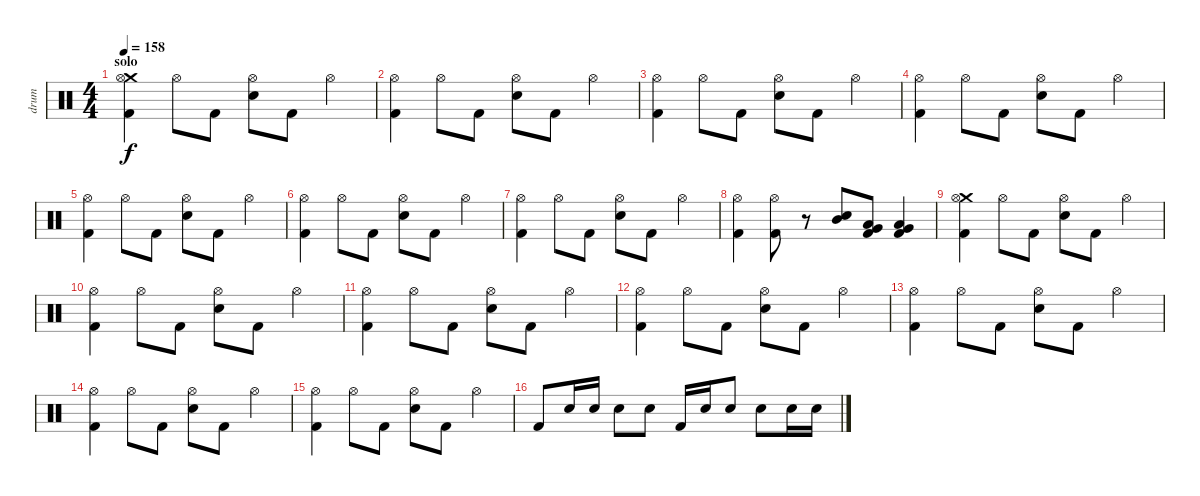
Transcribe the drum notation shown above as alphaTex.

\track ("drum" "drum") {instrument percussion}
\staff {score}
\articulation defaults
\ts (4 4)
\section ("" "solo")
\tempo 158
\clef neutral
\ks c
("Crash medium (hit)" "Hi-Hat (open)" "Kick (hit) 2").4{dy f} "Hi-Hat (open)".8 "Kick (hit) 2".8 ("Hi-Hat (open)" "Electric Snare (hit)").8 "Kick (hit) 2".8 "Hi-Hat (open)".4 |
("Hi-Hat (open)" "Kick (hit) 2").4 "Hi-Hat (open)".8 "Kick (hit) 2".8 ("Hi-Hat (open)" "Electric Snare (hit)").8 "Kick (hit) 2".8 "Hi-Hat (open)".4 |
("Hi-Hat (open)" "Kick (hit) 2").4 "Hi-Hat (open)".8 "Kick (hit) 2".8 ("Hi-Hat (open)" "Electric Snare (hit)").8 "Kick (hit) 2".8 "Hi-Hat (open)".4 |
("Hi-Hat (open)" "Kick (hit) 2").4 "Hi-Hat (open)".8 "Kick (hit) 2".8 ("Hi-Hat (open)" "Electric Snare (hit)").8 "Kick (hit) 2".8 "Hi-Hat (open)".4 |
("Hi-Hat (open)" "Kick (hit) 2").4 "Hi-Hat (open)".8 "Kick (hit) 2".8 ("Hi-Hat (open)" "Electric Snare (hit)").8 "Kick (hit) 2".8 "Hi-Hat (open)".4 |
("Hi-Hat (open)" "Kick (hit) 2").4 "Hi-Hat (open)".8 "Kick (hit) 2".8 ("Hi-Hat (open)" "Electric Snare (hit)").8 "Kick (hit) 2".8 "Hi-Hat (open)".4 |
("Hi-Hat (open)" "Kick (hit) 2").4 "Hi-Hat (open)".8 "Kick (hit) 2".8 ("Hi-Hat (open)" "Electric Snare (hit)").8 "Kick (hit) 2".8 "Hi-Hat (open)".4 |
("Hi-Hat (open)" "Kick (hit) 2").4 ("Hi-Hat (open)" "Kick (hit) 2").8 r.8 ("Mid Tom (hit)" "Electric Snare (hit)").8 ("Very Low Tom (hit)" "Low Floor Tom (hit)" "Kick (hit) 2").8 ("Very Low Tom (hit)" "Low Floor Tom (hit)" "Kick (hit) 2").4 |
("Crash medium (hit)" "Hi-Hat (open)" "Kick (hit) 2").4 "Hi-Hat (open)".8 "Kick (hit) 2".8 ("Hi-Hat (open)" "Electric Snare (hit)").8 "Kick (hit) 2".8 "Hi-Hat (open)".4 |
("Hi-Hat (open)" "Kick (hit) 2").4 "Hi-Hat (open)".8 "Kick (hit) 2".8 ("Hi-Hat (open)" "Electric Snare (hit)").8 "Kick (hit) 2".8 "Hi-Hat (open)".4 |
("Hi-Hat (open)" "Kick (hit) 2").4 "Hi-Hat (open)".8 "Kick (hit) 2".8 ("Hi-Hat (open)" "Electric Snare (hit)").8 "Kick (hit) 2".8 "Hi-Hat (open)".4 |
("Hi-Hat (open)" "Kick (hit) 2").4 "Hi-Hat (open)".8 "Kick (hit) 2".8 ("Hi-Hat (open)" "Electric Snare (hit)").8 "Kick (hit) 2".8 "Hi-Hat (open)".4 |
("Hi-Hat (open)" "Kick (hit) 2").4 "Hi-Hat (open)".8 "Kick (hit) 2".8 ("Hi-Hat (open)" "Electric Snare (hit)").8 "Kick (hit) 2".8 "Hi-Hat (open)".4 |
("Hi-Hat (open)" "Kick (hit) 2").4 "Hi-Hat (open)".8 "Kick (hit) 2".8 ("Hi-Hat (open)" "Electric Snare (hit)").8 "Kick (hit) 2".8 "Hi-Hat (open)".4 |
("Hi-Hat (open)" "Kick (hit) 2").4 "Hi-Hat (open)".8 "Kick (hit) 2".8 ("Hi-Hat (open)" "Electric Snare (hit)").8 "Kick (hit) 2".8 "Hi-Hat (open)".4 |
"Kick (hit) 2".8 "Electric Snare (hit)".16 "Electric Snare (hit)".16 "Electric Snare (hit)".8 "Electric Snare (hit)".8 "Kick (hit) 2".16 "Electric Snare (hit)".16 "Electric Snare (hit)".8 "Electric Snare (hit)".8 "Electric Snare (hit)".16 "Electric Snare (hit)".16
